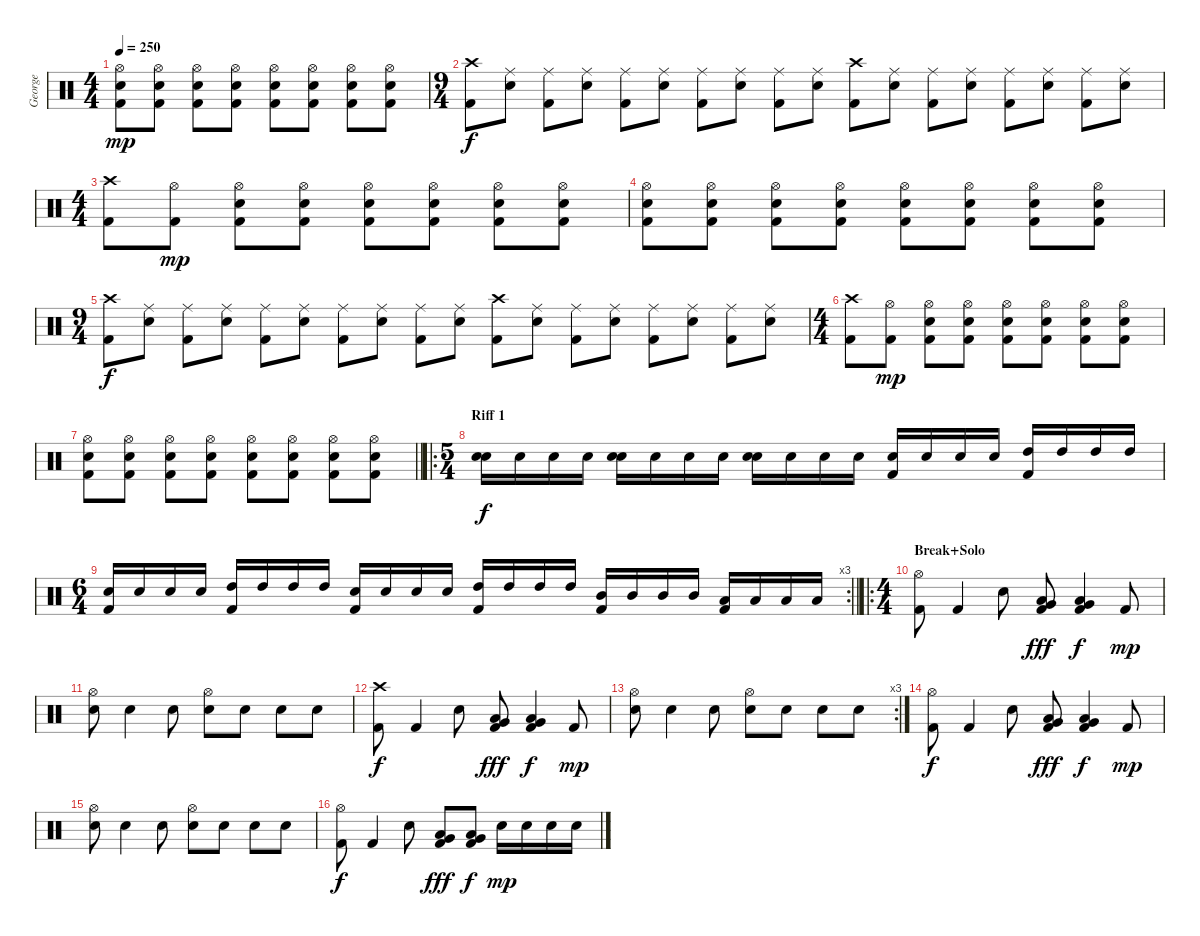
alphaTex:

\track ("George" "George") {instrument percussion}
\staff {score}
\articulation defaults
\ts (4 4)
\tempo 250
\clef neutral
\ks c
("Hi-Hat (open)" "Snare (hit) 2" "Kick (hit) 2").8{dy mp} ("Hi-Hat (open)" "Snare (hit) 2" "Kick (hit) 2").8 ("Hi-Hat (open)" "Snare (hit) 2" "Kick (hit) 2").8 ("Hi-Hat (open)" "Snare (hit) 2" "Kick (hit) 2").8 ("Hi-Hat (open)" "Snare (hit) 2" "Kick (hit) 2").8 ("Hi-Hat (open)" "Snare (hit) 2" "Kick (hit) 2").8 ("Hi-Hat (open)" "Snare (hit) 2" "Kick (hit) 2").8 ("Hi-Hat (open)" "Snare (hit) 2" "Kick (hit) 2").8 |
\ts (9 4)
("Crash high (hit)" "Kick (hit) 2").8{dy f} ("Ride (middle)" "Snare (hit) 2").8 ("Ride (middle)" "Kick (hit) 2").8 ("Ride (middle)" "Snare (hit) 2").8 ("Ride (middle)" "Kick (hit) 2").8 ("Ride (middle)" "Snare (hit) 2").8 ("Ride (middle)" "Kick (hit) 2").8 ("Ride (middle)" "Snare (hit) 2").8 ("Ride (middle)" "Kick (hit) 2").8 ("Ride (middle)" "Snare (hit) 2").8 ("Crash high (hit)" "Kick (hit) 2").8 ("Ride (middle)" "Snare (hit) 2").8 ("Ride (middle)" "Kick (hit) 2").8 ("Ride (middle)" "Snare (hit) 2").8 ("Ride (middle)" "Kick (hit) 2").8 ("Ride (middle)" "Snare (hit) 2").8 ("Ride (middle)" "Kick (hit) 2").8 ("Ride (middle)" "Snare (hit) 2").8 |
\ts (4 4)
("Crash high (hit)" "Kick (hit) 2").8 ("Hi-Hat (open)" "Kick (hit) 2").8{dy mp} ("Hi-Hat (open)" "Snare (hit) 2" "Kick (hit) 2").8 ("Hi-Hat (open)" "Snare (hit) 2" "Kick (hit) 2").8 ("Hi-Hat (open)" "Snare (hit) 2" "Kick (hit) 2").8 ("Hi-Hat (open)" "Snare (hit) 2" "Kick (hit) 2").8 ("Hi-Hat (open)" "Snare (hit) 2" "Kick (hit) 2").8 ("Hi-Hat (open)" "Snare (hit) 2" "Kick (hit) 2").8 |
("Hi-Hat (open)" "Snare (hit) 2" "Kick (hit) 2").8 ("Hi-Hat (open)" "Snare (hit) 2" "Kick (hit) 2").8 ("Hi-Hat (open)" "Snare (hit) 2" "Kick (hit) 2").8 ("Hi-Hat (open)" "Snare (hit) 2" "Kick (hit) 2").8 ("Hi-Hat (open)" "Snare (hit) 2" "Kick (hit) 2").8 ("Hi-Hat (open)" "Snare (hit) 2" "Kick (hit) 2").8 ("Hi-Hat (open)" "Snare (hit) 2" "Kick (hit) 2").8 ("Hi-Hat (open)" "Snare (hit) 2" "Kick (hit) 2").8 |
\ts (9 4)
("Crash high (hit)" "Kick (hit) 2").8{dy f} ("Ride (middle)" "Snare (hit) 2").8 ("Ride (middle)" "Kick (hit) 2").8 ("Ride (middle)" "Snare (hit) 2").8 ("Ride (middle)" "Kick (hit) 2").8 ("Ride (middle)" "Snare (hit) 2").8 ("Ride (middle)" "Kick (hit) 2").8 ("Ride (middle)" "Snare (hit) 2").8 ("Ride (middle)" "Kick (hit) 2").8 ("Ride (middle)" "Snare (hit) 2").8 ("Crash high (hit)" "Kick (hit) 2").8 ("Ride (middle)" "Snare (hit) 2").8 ("Ride (middle)" "Kick (hit) 2").8 ("Ride (middle)" "Snare (hit) 2").8 ("Ride (middle)" "Kick (hit) 2").8 ("Ride (middle)" "Snare (hit) 2").8 ("Ride (middle)" "Kick (hit) 2").8 ("Ride (middle)" "Snare (hit) 2").8 |
\ts (4 4)
("Crash high (hit)" "Kick (hit) 2").8 ("Hi-Hat (open)" "Kick (hit) 2").8{dy mp} ("Hi-Hat (open)" "Snare (hit) 2" "Kick (hit) 2").8 ("Hi-Hat (open)" "Snare (hit) 2" "Kick (hit) 2").8 ("Hi-Hat (open)" "Snare (hit) 2" "Kick (hit) 2").8 ("Hi-Hat (open)" "Snare (hit) 2" "Kick (hit) 2").8 ("Hi-Hat (open)" "Snare (hit) 2" "Kick (hit) 2").8 ("Hi-Hat (open)" "Snare (hit) 2" "Kick (hit) 2").8 |
\barLineRight lightlight
("Hi-Hat (open)" "Snare (hit) 2" "Kick (hit) 2").8 ("Hi-Hat (open)" "Snare (hit) 2" "Kick (hit) 2").8 ("Hi-Hat (open)" "Snare (hit) 2" "Kick (hit) 2").8 ("Hi-Hat (open)" "Snare (hit) 2" "Kick (hit) 2").8 ("Hi-Hat (open)" "Snare (hit) 2" "Kick (hit) 2").8 ("Hi-Hat (open)" "Snare (hit) 2" "Kick (hit) 2").8 ("Hi-Hat (open)" "Snare (hit) 2" "Kick (hit) 2").8 ("Hi-Hat (open)" "Snare (hit) 2" "Kick (hit) 2").8 |
\ro
\ts (5 4)
\section ("" "Riff 1")
("Snare (hit)" "Snare (hit) 2").16{dy f} "Snare (hit) 2".16 "Snare (hit) 2".16 "Snare (hit) 2".16 ("Snare (hit)" "Snare (hit) 2").16 "Snare (hit) 2".16 "Snare (hit) 2".16 "Snare (hit) 2".16 ("Snare (hit)" "Snare (hit) 2").16 "Snare (hit) 2".16 "Snare (hit) 2".16 "Snare (hit) 2".16 ("Kick (hit) 2" "Snare (hit) 2").16 "Snare (hit) 2".16 "Snare (hit) 2".16 "Snare (hit) 2".16 ("Kick (hit) 2" "High Tom (hit)").16 "High Tom (hit)".16 "High Tom (hit)".16 "High Tom (hit)".16 |
\rc 3
\ts (6 4)
\barLineRight lightlight
("Kick (hit) 2" "Snare (hit) 2").16 "Snare (hit) 2".16 "Snare (hit) 2".16 "Snare (hit) 2".16 ("Kick (hit) 2" "High Tom (hit)").16 "High Tom (hit)".16 "High Tom (hit)".16 "High Tom (hit)".16 ("Kick (hit) 2" "Snare (hit) 2").16 "Snare (hit) 2".16 "Snare (hit) 2".16 "Snare (hit) 2".16 ("Kick (hit) 2" "High Tom (hit)").16 "High Tom (hit)".16 "High Tom (hit)".16 "High Tom (hit)".16 ("Kick (hit) 2" "Mid Tom (hit)").16 "Mid Tom (hit)".16 "Mid Tom (hit)".16 "Mid Tom (hit)".16 ("Kick (hit) 2" "Low Tom (hit)").16 "Low Tom (hit)".16 "Low Tom (hit)".16 "Low Tom (hit)".16 |
\ro
\ts (4 4)
\section ("" "Break+Solo")
("Hi-Hat (open)" "Kick (hit) 2").8 "Kick (hit) 2".4 "Snare (hit) 2".8 ("Low Tom (hit)" "Very Low Tom (hit)" "Kick (hit) 2").8{dy fff} ("Low Tom (hit)" "Very Low Tom (hit)" "Kick (hit) 2").4{dy f} "Kick (hit) 2".8{dy mp} |
("Hi-Hat (open)" "Snare (hit) 2").8 "Snare (hit) 2".4 "Electric Snare (hit)".8 ("Hi-Hat (open)" "Electric Snare (hit)").8 "Electric Snare (hit)".8 "Electric Snare (hit)".8 "Electric Snare (hit)".8 |
("Crash high (hit)" "Kick (hit) 2").8{dy f} "Kick (hit) 2".4 "Snare (hit) 2".8 ("Low Tom (hit)" "Very Low Tom (hit)" "Kick (hit) 2").8{dy fff} ("Low Tom (hit)" "Very Low Tom (hit)" "Kick (hit) 2").4{dy f} "Kick (hit) 2".8{dy mp} |
\rc 3
("Hi-Hat (open)" "Snare (hit) 2").8 "Snare (hit) 2".4 "Electric Snare (hit)".8 ("Hi-Hat (open)" "Electric Snare (hit)").8 "Electric Snare (hit)".8 "Electric Snare (hit)".8 "Electric Snare (hit)".8 |
("Hi-Hat (open)" "Kick (hit) 2").8{dy f} "Kick (hit) 2".4 "Snare (hit) 2".8 ("Low Tom (hit)" "Very Low Tom (hit)" "Kick (hit) 2").8{dy fff} ("Low Tom (hit)" "Very Low Tom (hit)" "Kick (hit) 2").4{dy f} "Kick (hit) 2".8{dy mp} |
("Hi-Hat (open)" "Snare (hit) 2").8 "Snare (hit) 2".4 "Electric Snare (hit)".8 ("Hi-Hat (open)" "Electric Snare (hit)").8 "Electric Snare (hit)".8 "Electric Snare (hit)".8 "Electric Snare (hit)".8 |
("Hi-Hat (open)" "Kick (hit) 2").8{dy f} "Kick (hit) 2".4 "Snare (hit) 2".8 ("Low Tom (hit)" "Very Low Tom (hit)" "Kick (hit) 2").8{dy fff} ("Low Tom (hit)" "Very Low Tom (hit)" "Kick (hit) 2").8{dy f} "Snare (hit) 2".16{dy mp} "Snare (hit) 2".16 "Snare (hit) 2".16 "Snare (hit) 2".16
